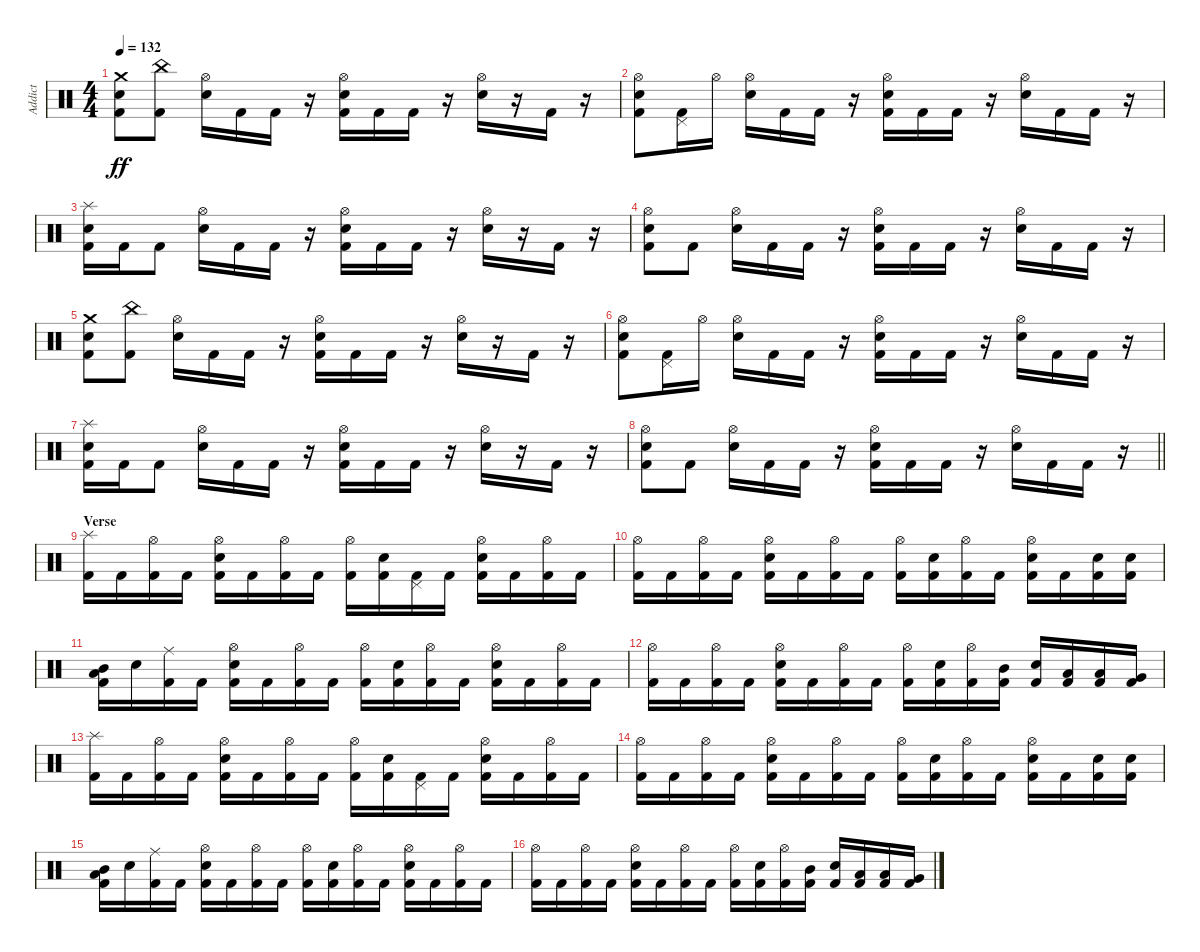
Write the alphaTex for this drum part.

\track ("Addict" "Addict") {instrument percussion}
\staff {score}
\articulation defaults
\ts (4 4)
\tempo 132
\clef neutral
\ks c
("Kick (hit) 2" "Snare (hit) 2" "Crash medium (hit)").8{dy ff} ("Kick (hit) 2" "China (hit)").8 ("Snare (hit) 2" "Hi-Hat (open)").16 "Kick (hit) 2".16 "Kick (hit) 2".16 r.16 ("Kick (hit) 2" "Snare (hit) 2" "Hi-Hat (open)").16 "Kick (hit) 2".16 "Kick (hit) 2".16 r.16 ("Snare (hit) 2" "Hi-Hat (open)").16 r.16 "Kick (hit) 2".16 r.16 |
("Kick (hit) 2" "Snare (hit) 2" "Hi-Hat (open)").8 ("Kick (hit) 2" "Pedal Hi-Hat (hit)").16 "Hi-Hat (open)".16 ("Snare (hit) 2" "Hi-Hat (open)").16 "Kick (hit) 2".16 "Kick (hit) 2".16 r.16 ("Kick (hit) 2" "Snare (hit) 2" "Hi-Hat (open)").16 "Kick (hit) 2".16 "Kick (hit) 2".16 r.16 ("Snare (hit) 2" "Hi-Hat (open)").16 "Kick (hit) 2".16 "Kick (hit) 2".16 r.16 |
("Kick (hit) 2" "Snare (hit) 2" "Splash (hit)").16 "Kick (hit) 2".16 "Kick (hit) 2".8 ("Snare (hit) 2" "Hi-Hat (open)").16 "Kick (hit) 2".16 "Kick (hit) 2".16 r.16 ("Kick (hit) 2" "Snare (hit) 2" "Hi-Hat (open)").16 "Kick (hit) 2".16 "Kick (hit) 2".16 r.16 ("Snare (hit) 2" "Hi-Hat (open)").16 r.16 "Kick (hit) 2".16 r.16 |
("Kick (hit) 2" "Snare (hit) 2" "Hi-Hat (open)").8 "Kick (hit) 2".8 ("Snare (hit) 2" "Hi-Hat (open)").16 "Kick (hit) 2".16 "Kick (hit) 2".16 r.16 ("Kick (hit) 2" "Snare (hit) 2" "Hi-Hat (open)").16 "Kick (hit) 2".16 "Kick (hit) 2".16 r.16 ("Snare (hit) 2" "Hi-Hat (open)").16 "Kick (hit) 2".16 "Kick (hit) 2".16 r.16 |
("Kick (hit) 2" "Snare (hit) 2" "Crash medium (hit)").8 ("Kick (hit) 2" "China (hit)").8 ("Snare (hit) 2" "Hi-Hat (open)").16 "Kick (hit) 2".16 "Kick (hit) 2".16 r.16 ("Kick (hit) 2" "Snare (hit) 2" "Hi-Hat (open)").16 "Kick (hit) 2".16 "Kick (hit) 2".16 r.16 ("Snare (hit) 2" "Hi-Hat (open)").16 r.16 "Kick (hit) 2".16 r.16 |
("Kick (hit) 2" "Snare (hit) 2" "Hi-Hat (open)").8 ("Kick (hit) 2" "Pedal Hi-Hat (hit)").16 "Hi-Hat (open)".16 ("Snare (hit) 2" "Hi-Hat (open)").16 "Kick (hit) 2".16 "Kick (hit) 2".16 r.16 ("Kick (hit) 2" "Snare (hit) 2" "Hi-Hat (open)").16 "Kick (hit) 2".16 "Kick (hit) 2".16 r.16 ("Snare (hit) 2" "Hi-Hat (open)").16 "Kick (hit) 2".16 "Kick (hit) 2".16 r.16 |
("Kick (hit) 2" "Snare (hit) 2" "Splash (hit)").16 "Kick (hit) 2".16 "Kick (hit) 2".8 ("Snare (hit) 2" "Hi-Hat (open)").16 "Kick (hit) 2".16 "Kick (hit) 2".16 r.16 ("Kick (hit) 2" "Snare (hit) 2" "Hi-Hat (open)").16 "Kick (hit) 2".16 "Kick (hit) 2".16 r.16 ("Snare (hit) 2" "Hi-Hat (open)").16 r.16 "Kick (hit) 2".16 r.16 |
\barLineRight lightlight
("Kick (hit) 2" "Snare (hit) 2" "Hi-Hat (open)").8 "Kick (hit) 2".8 ("Snare (hit) 2" "Hi-Hat (open)").16 "Kick (hit) 2".16 "Kick (hit) 2".16 r.16 ("Kick (hit) 2" "Snare (hit) 2" "Hi-Hat (open)").16 "Kick (hit) 2".16 "Kick (hit) 2".16 r.16 ("Snare (hit) 2" "Hi-Hat (open)").16 "Kick (hit) 2".16 "Kick (hit) 2".16 r.16 |
\section ("" "Verse")
("Kick (hit) 2" "Splash (hit)").16 "Kick (hit) 2".16 ("Kick (hit) 2" "Hi-Hat (open)").16 "Kick (hit) 2".16 ("Kick (hit) 2" "Snare (hit) 2" "Hi-Hat (open)").16 "Kick (hit) 2".16 ("Kick (hit) 2" "Hi-Hat (open)").16 "Kick (hit) 2".16 ("Kick (hit) 2" "Hi-Hat (open)").16 ("Kick (hit) 2" "Snare (hit) 2").16 ("Kick (hit) 2" "Pedal Hi-Hat (hit)").16 "Kick (hit) 2".16 ("Kick (hit) 2" "Snare (hit) 2" "Hi-Hat (open)").16 "Kick (hit) 2".16 ("Kick (hit) 2" "Hi-Hat (open)").16 "Kick (hit) 2".16 |
("Kick (hit) 2" "Hi-Hat (open)").16 "Kick (hit) 2".16 ("Kick (hit) 2" "Hi-Hat (open)").16 "Kick (hit) 2".16 ("Kick (hit) 2" "Snare (hit) 2" "Hi-Hat (open)").16 "Kick (hit) 2".16 ("Kick (hit) 2" "Hi-Hat (open)").16 "Kick (hit) 2".16 ("Kick (hit) 2" "Hi-Hat (open)").16 ("Kick (hit) 2" "Snare (hit) 2").16 ("Kick (hit) 2" "Hi-Hat (open)").16 "Kick (hit) 2".16 ("Kick (hit) 2" "Snare (hit) 2" "Hi-Hat (open)").16 "Kick (hit) 2".16 ("Kick (hit) 2" "Snare (hit) 2").16 ("Kick (hit) 2" "Snare (hit) 2").16 |
("Kick (hit) 2" "Low Tom (hit)" "Mid Tom (hit)").16 "Snare (hit) 2".16 ("Kick (hit) 2" "Ride (middle)").16 "Kick (hit) 2".16 ("Kick (hit) 2" "Snare (hit) 2" "Hi-Hat (open)").16 "Kick (hit) 2".16 ("Kick (hit) 2" "Hi-Hat (open)").16 "Kick (hit) 2".16 ("Kick (hit) 2" "Hi-Hat (open)").16 ("Kick (hit) 2" "Snare (hit) 2").16 ("Kick (hit) 2" "Hi-Hat (open)").16 "Kick (hit) 2".16 ("Kick (hit) 2" "Snare (hit) 2" "Hi-Hat (open)").16 "Kick (hit) 2".16 ("Kick (hit) 2" "Hi-Hat (open)").16 "Kick (hit) 2".16 |
("Kick (hit) 2" "Hi-Hat (open)").16 "Kick (hit) 2".16 ("Kick (hit) 2" "Hi-Hat (open)").16 "Kick (hit) 2".16 ("Kick (hit) 2" "Snare (hit) 2" "Hi-Hat (open)").16 "Kick (hit) 2".16 ("Kick (hit) 2" "Hi-Hat (open)").16 "Kick (hit) 2".16 ("Kick (hit) 2" "Hi-Hat (open)").16 ("Kick (hit) 2" "Snare (hit) 2").16 ("Kick (hit) 2" "Hi-Hat (open)").16 ("Kick (hit) 2" "Mid Tom (hit)").16 ("Kick (hit) 2" "Snare (hit) 2").16 ("Kick (hit) 2" "Low Tom (hit)").16 ("Kick (hit) 2" "Low Tom (hit)").16 ("Kick (hit) 2" "Very Low Tom (hit)").16 |
("Kick (hit) 2" "Splash (hit)").16 "Kick (hit) 2".16 ("Kick (hit) 2" "Hi-Hat (open)").16 "Kick (hit) 2".16 ("Kick (hit) 2" "Snare (hit) 2" "Hi-Hat (open)").16 "Kick (hit) 2".16 ("Kick (hit) 2" "Hi-Hat (open)").16 "Kick (hit) 2".16 ("Kick (hit) 2" "Hi-Hat (open)").16 ("Kick (hit) 2" "Snare (hit) 2").16 ("Kick (hit) 2" "Pedal Hi-Hat (hit)").16 "Kick (hit) 2".16 ("Kick (hit) 2" "Snare (hit) 2" "Hi-Hat (open)").16 "Kick (hit) 2".16 ("Kick (hit) 2" "Hi-Hat (open)").16 "Kick (hit) 2".16 |
("Kick (hit) 2" "Hi-Hat (open)").16 "Kick (hit) 2".16 ("Kick (hit) 2" "Hi-Hat (open)").16 "Kick (hit) 2".16 ("Kick (hit) 2" "Snare (hit) 2" "Hi-Hat (open)").16 "Kick (hit) 2".16 ("Kick (hit) 2" "Hi-Hat (open)").16 "Kick (hit) 2".16 ("Kick (hit) 2" "Hi-Hat (open)").16 ("Kick (hit) 2" "Snare (hit) 2").16 ("Kick (hit) 2" "Hi-Hat (open)").16 "Kick (hit) 2".16 ("Kick (hit) 2" "Snare (hit) 2" "Hi-Hat (open)").16 "Kick (hit) 2".16 ("Kick (hit) 2" "Snare (hit) 2").16 ("Kick (hit) 2" "Snare (hit) 2").16 |
("Kick (hit) 2" "Low Tom (hit)" "Mid Tom (hit)").16 "Snare (hit) 2".16 ("Kick (hit) 2" "Ride (middle)").16 "Kick (hit) 2".16 ("Kick (hit) 2" "Snare (hit) 2" "Hi-Hat (open)").16 "Kick (hit) 2".16 ("Kick (hit) 2" "Hi-Hat (open)").16 "Kick (hit) 2".16 ("Kick (hit) 2" "Hi-Hat (open)").16 ("Kick (hit) 2" "Snare (hit) 2").16 ("Kick (hit) 2" "Hi-Hat (open)").16 "Kick (hit) 2".16 ("Kick (hit) 2" "Snare (hit) 2" "Hi-Hat (open)").16 "Kick (hit) 2".16 ("Kick (hit) 2" "Hi-Hat (open)").16 "Kick (hit) 2".16 |
("Kick (hit) 2" "Hi-Hat (open)").16 "Kick (hit) 2".16 ("Kick (hit) 2" "Hi-Hat (open)").16 "Kick (hit) 2".16 ("Kick (hit) 2" "Snare (hit) 2" "Hi-Hat (open)").16 "Kick (hit) 2".16 ("Kick (hit) 2" "Hi-Hat (open)").16 "Kick (hit) 2".16 ("Kick (hit) 2" "Hi-Hat (open)").16 ("Kick (hit) 2" "Snare (hit) 2").16 ("Kick (hit) 2" "Hi-Hat (open)").16 ("Kick (hit) 2" "Mid Tom (hit)").16 ("Kick (hit) 2" "Snare (hit) 2").16 ("Kick (hit) 2" "Low Tom (hit)").16 ("Kick (hit) 2" "Low Tom (hit)").16 ("Kick (hit) 2" "Very Low Tom (hit)").16
